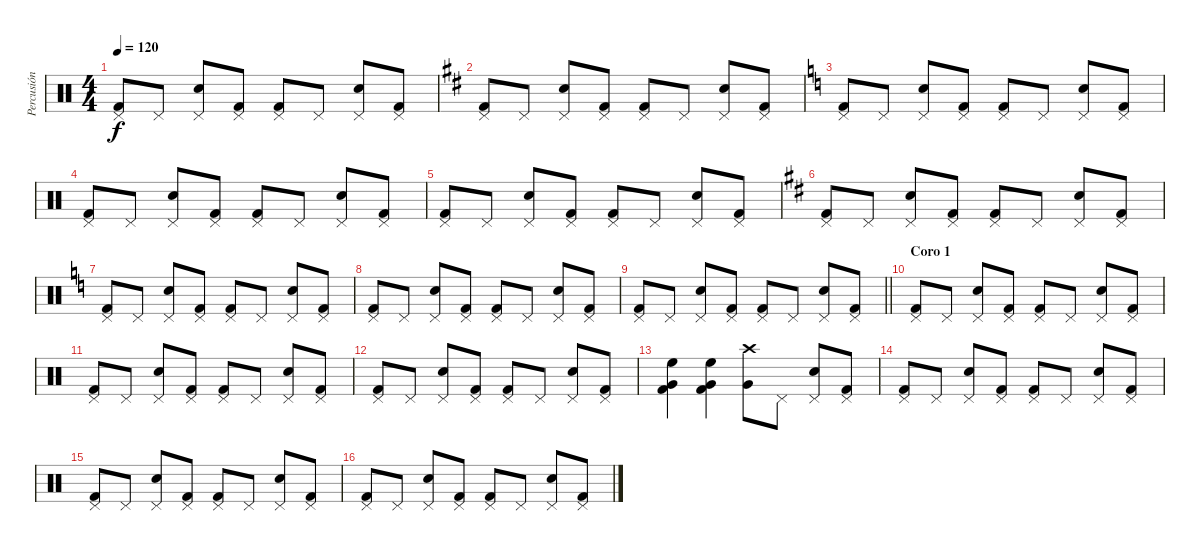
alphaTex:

\track ("Percusión" "Percusión") {instrument percussion}
\staff {score}
\articulation defaults
\ts (4 4)
\tempo 120
\clef neutral
\ks c
("Pedal Hi-Hat (hit)" "Kick (hit) 2").8{dy f} "Pedal Hi-Hat (hit)".8 ("Pedal Hi-Hat (hit)" "Electric Snare (hit)").8 ("Pedal Hi-Hat (hit)" "Kick (hit) 2").8 ("Pedal Hi-Hat (hit)" "Kick (hit) 2").8 "Pedal Hi-Hat (hit)".8 ("Pedal Hi-Hat (hit)" "Electric Snare (hit)").8 ("Pedal Hi-Hat (hit)" "Kick (hit) 2").8 |
\ks d
("Pedal Hi-Hat (hit)" "Kick (hit) 2").8 "Pedal Hi-Hat (hit)".8 ("Pedal Hi-Hat (hit)" "Electric Snare (hit)").8 ("Pedal Hi-Hat (hit)" "Kick (hit) 2").8 ("Pedal Hi-Hat (hit)" "Kick (hit) 2").8 "Pedal Hi-Hat (hit)".8 ("Pedal Hi-Hat (hit)" "Electric Snare (hit)").8 ("Pedal Hi-Hat (hit)" "Kick (hit) 2").8 |
\ks c
("Pedal Hi-Hat (hit)" "Kick (hit) 2").8 "Pedal Hi-Hat (hit)".8 ("Pedal Hi-Hat (hit)" "Electric Snare (hit)").8 ("Pedal Hi-Hat (hit)" "Kick (hit) 2").8 ("Pedal Hi-Hat (hit)" "Kick (hit) 2").8 "Pedal Hi-Hat (hit)".8 ("Pedal Hi-Hat (hit)" "Electric Snare (hit)").8 ("Pedal Hi-Hat (hit)" "Kick (hit) 2").8 |
("Pedal Hi-Hat (hit)" "Kick (hit) 2").8 "Pedal Hi-Hat (hit)".8 ("Pedal Hi-Hat (hit)" "Electric Snare (hit)").8 ("Pedal Hi-Hat (hit)" "Kick (hit) 2").8 ("Pedal Hi-Hat (hit)" "Kick (hit) 2").8 "Pedal Hi-Hat (hit)".8 ("Pedal Hi-Hat (hit)" "Electric Snare (hit)").8 ("Pedal Hi-Hat (hit)" "Kick (hit) 2").8 |
("Pedal Hi-Hat (hit)" "Kick (hit) 2").8 "Pedal Hi-Hat (hit)".8 ("Pedal Hi-Hat (hit)" "Electric Snare (hit)").8 ("Pedal Hi-Hat (hit)" "Kick (hit) 2").8 ("Pedal Hi-Hat (hit)" "Kick (hit) 2").8 "Pedal Hi-Hat (hit)".8 ("Pedal Hi-Hat (hit)" "Electric Snare (hit)").8 ("Pedal Hi-Hat (hit)" "Kick (hit) 2").8 |
\ks d
("Pedal Hi-Hat (hit)" "Kick (hit) 2").8 "Pedal Hi-Hat (hit)".8 ("Pedal Hi-Hat (hit)" "Electric Snare (hit)").8 ("Pedal Hi-Hat (hit)" "Kick (hit) 2").8 ("Pedal Hi-Hat (hit)" "Kick (hit) 2").8 "Pedal Hi-Hat (hit)".8 ("Pedal Hi-Hat (hit)" "Electric Snare (hit)").8 ("Pedal Hi-Hat (hit)" "Kick (hit) 2").8 |
\ks c
("Pedal Hi-Hat (hit)" "Kick (hit) 2").8 "Pedal Hi-Hat (hit)".8 ("Pedal Hi-Hat (hit)" "Electric Snare (hit)").8 ("Pedal Hi-Hat (hit)" "Kick (hit) 2").8 ("Pedal Hi-Hat (hit)" "Kick (hit) 2").8 "Pedal Hi-Hat (hit)".8 ("Pedal Hi-Hat (hit)" "Electric Snare (hit)").8 ("Pedal Hi-Hat (hit)" "Kick (hit) 2").8 |
("Pedal Hi-Hat (hit)" "Kick (hit) 2").8 "Pedal Hi-Hat (hit)".8 ("Pedal Hi-Hat (hit)" "Electric Snare (hit)").8 ("Pedal Hi-Hat (hit)" "Kick (hit) 2").8 ("Pedal Hi-Hat (hit)" "Kick (hit) 2").8 "Pedal Hi-Hat (hit)".8 ("Pedal Hi-Hat (hit)" "Electric Snare (hit)").8 ("Pedal Hi-Hat (hit)" "Kick (hit) 2").8 |
\barLineRight lightlight
("Pedal Hi-Hat (hit)" "Kick (hit) 2").8 "Pedal Hi-Hat (hit)".8 ("Pedal Hi-Hat (hit)" "Electric Snare (hit)").8 ("Pedal Hi-Hat (hit)" "Kick (hit) 2").8 ("Pedal Hi-Hat (hit)" "Kick (hit) 2").8 "Pedal Hi-Hat (hit)".8 ("Pedal Hi-Hat (hit)" "Electric Snare (hit)").8 ("Pedal Hi-Hat (hit)" "Kick (hit) 2").8 |
\section ("" "Coro 1")
("Pedal Hi-Hat (hit)" "Kick (hit) 2").8 "Pedal Hi-Hat (hit)".8 ("Pedal Hi-Hat (hit)" "Electric Snare (hit)").8 ("Pedal Hi-Hat (hit)" "Kick (hit) 2").8 ("Pedal Hi-Hat (hit)" "Kick (hit) 2").8 "Pedal Hi-Hat (hit)".8 ("Pedal Hi-Hat (hit)" "Electric Snare (hit)").8 ("Pedal Hi-Hat (hit)" "Kick (hit) 2").8 |
("Pedal Hi-Hat (hit)" "Kick (hit) 2").8 "Pedal Hi-Hat (hit)".8 ("Pedal Hi-Hat (hit)" "Electric Snare (hit)").8 ("Pedal Hi-Hat (hit)" "Kick (hit) 2").8 ("Pedal Hi-Hat (hit)" "Kick (hit) 2").8 "Pedal Hi-Hat (hit)".8 ("Pedal Hi-Hat (hit)" "Electric Snare (hit)").8 ("Pedal Hi-Hat (hit)" "Kick (hit) 2").8 |
("Pedal Hi-Hat (hit)" "Kick (hit) 2").8 "Pedal Hi-Hat (hit)".8 ("Pedal Hi-Hat (hit)" "Electric Snare (hit)").8 ("Pedal Hi-Hat (hit)" "Kick (hit) 2").8 ("Pedal Hi-Hat (hit)" "Kick (hit) 2").8 "Pedal Hi-Hat (hit)".8 ("Pedal Hi-Hat (hit)" "Electric Snare (hit)").8 ("Pedal Hi-Hat (hit)" "Kick (hit) 2").8 |
("Very Low Tom (hit)" "High Floor Tom (hit)" "Kick (hit) 2").4 ("Very Low Tom (hit)" "High Floor Tom (hit)" "Kick (hit) 2").4 ("Very Low Tom (hit)" "Crash high (hit)").8 "Pedal Hi-Hat (hit)".8 ("Pedal Hi-Hat (hit)" "Electric Snare (hit)").8 ("Pedal Hi-Hat (hit)" "Kick (hit) 2").8 |
("Pedal Hi-Hat (hit)" "Kick (hit) 2").8 "Pedal Hi-Hat (hit)".8 ("Pedal Hi-Hat (hit)" "Electric Snare (hit)").8 ("Pedal Hi-Hat (hit)" "Kick (hit) 2").8 ("Pedal Hi-Hat (hit)" "Kick (hit) 2").8 "Pedal Hi-Hat (hit)".8 ("Pedal Hi-Hat (hit)" "Electric Snare (hit)").8 ("Pedal Hi-Hat (hit)" "Kick (hit) 2").8 |
("Pedal Hi-Hat (hit)" "Kick (hit) 2").8 "Pedal Hi-Hat (hit)".8 ("Pedal Hi-Hat (hit)" "Electric Snare (hit)").8 ("Pedal Hi-Hat (hit)" "Kick (hit) 2").8 ("Pedal Hi-Hat (hit)" "Kick (hit) 2").8 "Pedal Hi-Hat (hit)".8 ("Pedal Hi-Hat (hit)" "Electric Snare (hit)").8 ("Pedal Hi-Hat (hit)" "Kick (hit) 2").8 |
("Pedal Hi-Hat (hit)" "Kick (hit) 2").8 "Pedal Hi-Hat (hit)".8 ("Pedal Hi-Hat (hit)" "Electric Snare (hit)").8 ("Pedal Hi-Hat (hit)" "Kick (hit) 2").8 ("Pedal Hi-Hat (hit)" "Kick (hit) 2").8 "Pedal Hi-Hat (hit)".8 ("Pedal Hi-Hat (hit)" "Electric Snare (hit)").8 ("Pedal Hi-Hat (hit)" "Kick (hit) 2").8
